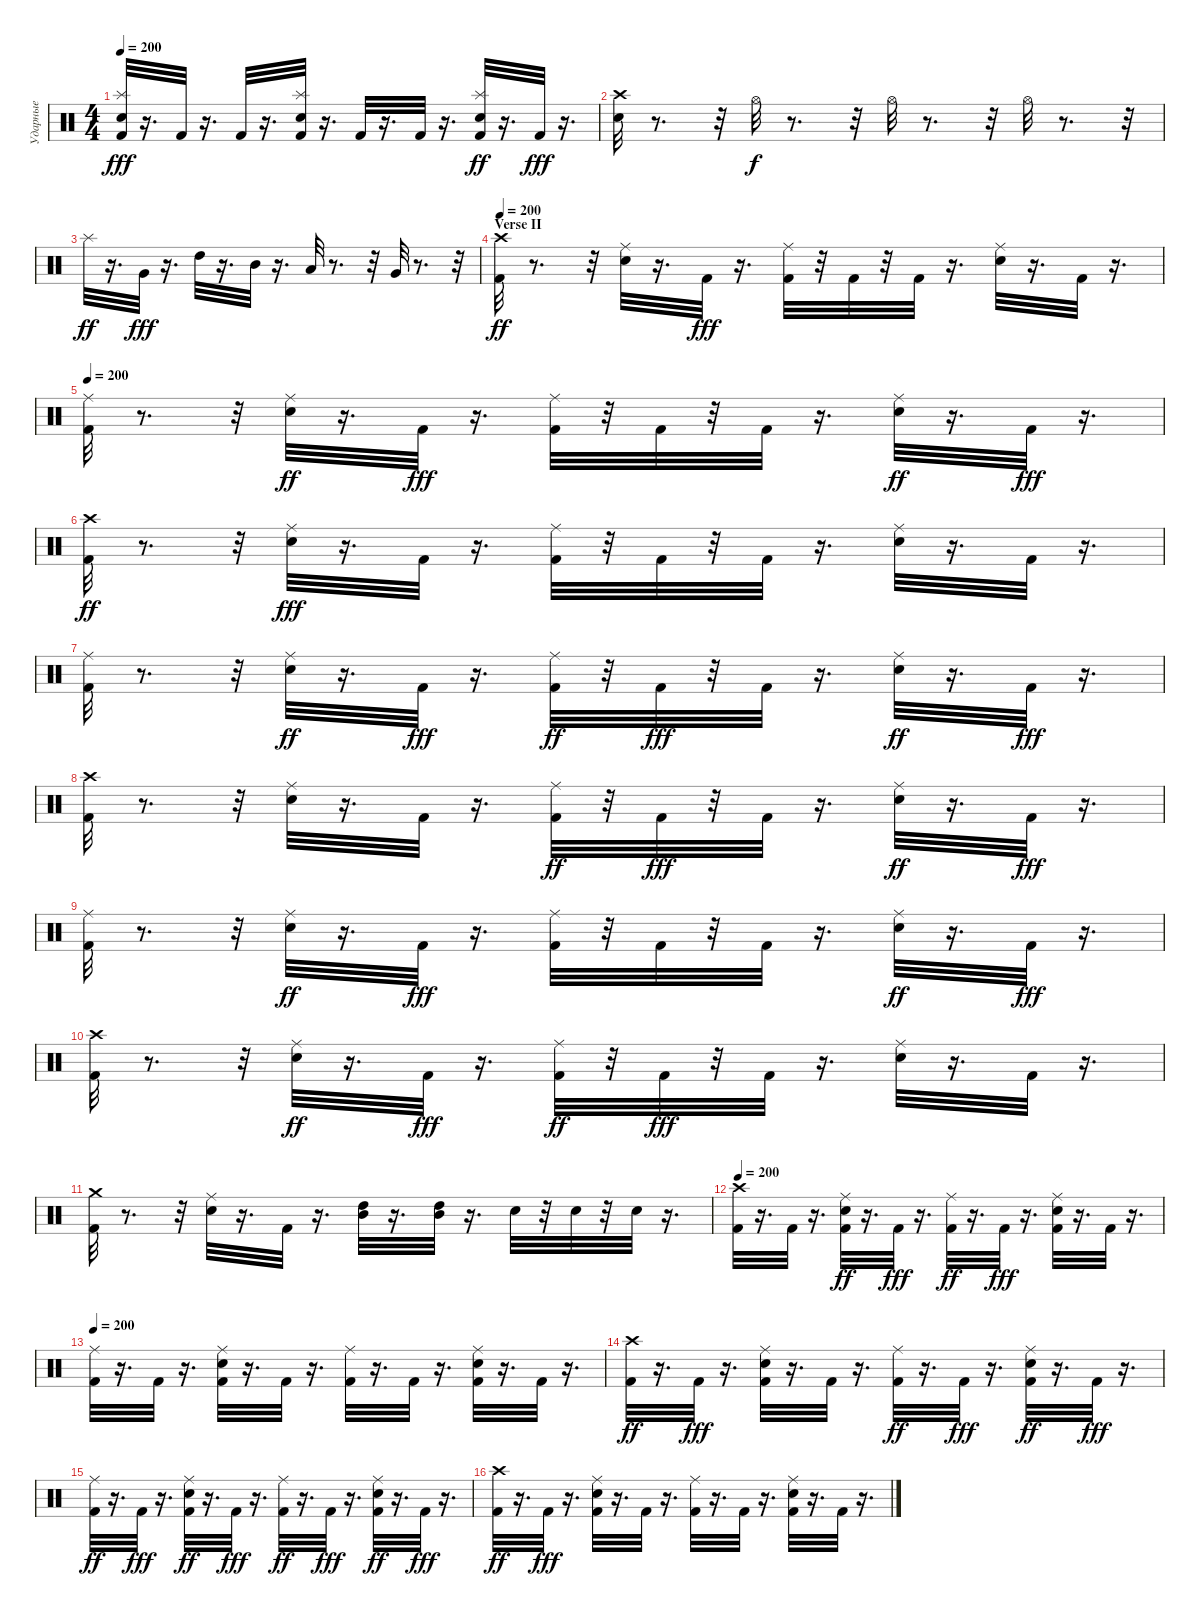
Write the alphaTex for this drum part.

\track ("Ударные" "Ударные") {instrument percussion}
\staff {score}
\articulation defaults
\ts (4 4)
\tempo 200
\clef neutral
\ks c
("Kick (hit) 2" "Splash (hit)" "Snare (hit) 2").32{dy fff} r.16{d} "Kick (hit) 2".32 r.16{d} "Kick (hit) 2".32 r.16{d} ("Kick (hit) 2" "Splash (hit)" "Snare (hit) 2").32 r.16{d} "Kick (hit) 2".32 r.16{d} "Kick (hit) 2".32 r.16{d} ("Kick (hit) 2" "Snare (hit) 2" "Splash (hit)").32{dy ff} r.16{d} "Kick (hit) 2".32{dy fff} r.16{d} |
("Snare (hit) 2" "Crash high (hit)").32 r.8{d} r.32 "Hi-Hat (open)".32{dy f} r.8{d} r.32 "Hi-Hat (open)".32 r.8{d} r.32 "Hi-Hat (open)".32 r.8{d} r.32 |
"Splash (hit)".32{dy ff} r.16{d} "Very Low Tom (hit)".32{dy fff} r.16{d} "High Tom (hit)".32 r.16{d} "Mid Tom (hit)".32 r.16{d} "Low Tom (hit)".32 r.8{d} r.32 "Very Low Tom (hit)".32 r.8{d} r.32 |
\section ("" "Verse II")
\tempo 200
("Kick (hit) 2" "Crash high (hit)").32{dy ff} r.8{d} r.32 ("Snare (hit) 2" "Ride (middle)").32 r.16{d} "Kick (hit) 2".32{dy fff} r.16{d} ("Ride (middle)" "Kick (hit) 2").32 r.32 "Kick (hit) 2".32 r.32 "Kick (hit) 2".32 r.16{d} ("Ride (middle)" "Snare (hit) 2").32 r.16{d} "Kick (hit) 2".32 r.16{d} |
\tempo 200
("Ride (middle)" "Kick (hit) 2").32 r.8{d} r.32 ("Snare (hit) 2" "Ride (middle)").32{dy ff} r.16{d} "Kick (hit) 2".32{dy fff} r.16{d} ("Ride (middle)" "Kick (hit) 2").32 r.32 "Kick (hit) 2".32 r.32 "Kick (hit) 2".32 r.16{d} ("Snare (hit) 2" "Ride (middle)").32{dy ff} r.16{d} "Kick (hit) 2".32{dy fff} r.16{d} |
("Kick (hit) 2" "Crash high (hit)").32{dy ff} r.8{d} r.32 ("Ride (middle)" "Snare (hit) 2").32{dy fff} r.16{d} "Kick (hit) 2".32 r.16{d} ("Ride (middle)" "Kick (hit) 2").32 r.32 "Kick (hit) 2".32 r.32 "Kick (hit) 2".32 r.16{d} ("Ride (middle)" "Snare (hit) 2").32 r.16{d} "Kick (hit) 2".32 r.16{d} |
("Ride (middle)" "Kick (hit) 2").32 r.8{d} r.32 ("Snare (hit) 2" "Ride (middle)").32{dy ff} r.16{d} "Kick (hit) 2".32{dy fff} r.16{d} ("Kick (hit) 2" "Ride (middle)").32{dy ff} r.32 "Kick (hit) 2".32{dy fff} r.32 "Kick (hit) 2".32 r.16{d} ("Snare (hit) 2" "Ride (middle)").32{dy ff} r.16{d} "Kick (hit) 2".32{dy fff} r.16{d} |
("Crash high (hit)" "Kick (hit) 2").32 r.8{d} r.32 ("Ride (middle)" "Snare (hit) 2").32 r.16{d} "Kick (hit) 2".32 r.16{d} ("Kick (hit) 2" "Ride (middle)").32{dy ff} r.32 "Kick (hit) 2".32{dy fff} r.32 "Kick (hit) 2".32 r.16{d} ("Snare (hit) 2" "Ride (middle)").32{dy ff} r.16{d} "Kick (hit) 2".32{dy fff} r.16{d} |
("Ride (middle)" "Kick (hit) 2").32 r.8{d} r.32 ("Snare (hit) 2" "Ride (middle)").32{dy ff} r.16{d} "Kick (hit) 2".32{dy fff} r.16{d} ("Ride (middle)" "Kick (hit) 2").32 r.32 "Kick (hit) 2".32 r.32 "Kick (hit) 2".32 r.16{d} ("Snare (hit) 2" "Ride (middle)").32{dy ff} r.16{d} "Kick (hit) 2".32{dy fff} r.16{d} |
("Crash high (hit)" "Kick (hit) 2").32 r.8{d} r.32 ("Snare (hit) 2" "Ride (middle)").32{dy ff} r.16{d} "Kick (hit) 2".32{dy fff} r.16{d} ("Kick (hit) 2" "Ride (middle)").32{dy ff} r.32 "Kick (hit) 2".32{dy fff} r.32 "Kick (hit) 2".32 r.16{d} ("Ride (middle)" "Snare (hit) 2").32 r.16{d} "Kick (hit) 2".32 r.16{d} |
("Crash medium (hit)" "Kick (hit) 2").32 r.8{d} r.32 ("Ride (middle)" "Snare (hit) 2").32 r.16{d} "Kick (hit) 2".32 r.16{d} ("High Tom (hit)" "Mid Tom (hit)").32 r.16{d} ("High Tom (hit)" "Mid Tom (hit)").32 r.16{d} "Snare (hit) 2".32 r.32 "Snare (hit) 2".32 r.32 "Snare (hit) 2".32 r.16{d} |
\tempo 200
("Crash high (hit)" "Kick (hit) 2").32 r.16{d} "Kick (hit) 2".32 r.16{d} ("Kick (hit) 2" "Snare (hit) 2" "Ride (middle)").32{dy ff} r.16{d} "Kick (hit) 2".32{dy fff} r.16{d} ("Kick (hit) 2" "Ride (middle)").32{dy ff} r.16{d} "Kick (hit) 2".32{dy fff} r.16{d} ("Kick (hit) 2" "Ride (middle)" "Snare (hit) 2").32 r.16{d} "Kick (hit) 2".32 r.16{d} |
\tempo 200
("Ride (middle)" "Kick (hit) 2").32 r.16{d} "Kick (hit) 2".32 r.16{d} ("Kick (hit) 2" "Ride (middle)" "Snare (hit) 2").32 r.16{d} "Kick (hit) 2".32 r.16{d} ("Ride (middle)" "Kick (hit) 2").32 r.16{d} "Kick (hit) 2".32 r.16{d} ("Kick (hit) 2" "Ride (middle)" "Snare (hit) 2").32 r.16{d} "Kick (hit) 2".32 r.16{d} |
("Kick (hit) 2" "Crash high (hit)").32{dy ff} r.16{d} "Kick (hit) 2".32{dy fff} r.16{d} ("Kick (hit) 2" "Ride (middle)" "Snare (hit) 2").32 r.16{d} "Kick (hit) 2".32 r.16{d} ("Kick (hit) 2" "Ride (middle)").32{dy ff} r.16{d} "Kick (hit) 2".32{dy fff} r.16{d} ("Kick (hit) 2" "Snare (hit) 2" "Ride (middle)").32{dy ff} r.16{d} "Kick (hit) 2".32{dy fff} r.16{d} |
("Kick (hit) 2" "Ride (middle)").32{dy ff} r.16{d} "Kick (hit) 2".32{dy fff} r.16{d} ("Kick (hit) 2" "Snare (hit) 2" "Ride (middle)").32{dy ff} r.16{d} "Kick (hit) 2".32{dy fff} r.16{d} ("Kick (hit) 2" "Ride (middle)").32{dy ff} r.16{d} "Kick (hit) 2".32{dy fff} r.16{d} ("Kick (hit) 2" "Snare (hit) 2" "Ride (middle)").32{dy ff} r.16{d} "Kick (hit) 2".32{dy fff} r.16{d} |
("Kick (hit) 2" "Crash high (hit)").32{dy ff} r.16{d} "Kick (hit) 2".32{dy fff} r.16{d} ("Snare (hit) 2" "Ride (middle)" "Kick (hit) 2").32 r.16{d} "Kick (hit) 2".32 r.16{d} ("Ride (middle)" "Kick (hit) 2").32 r.16{d} "Kick (hit) 2".32 r.16{d} ("Kick (hit) 2" "Ride (middle)" "Snare (hit) 2").32 r.16{d} "Kick (hit) 2".32 r.16{d}
